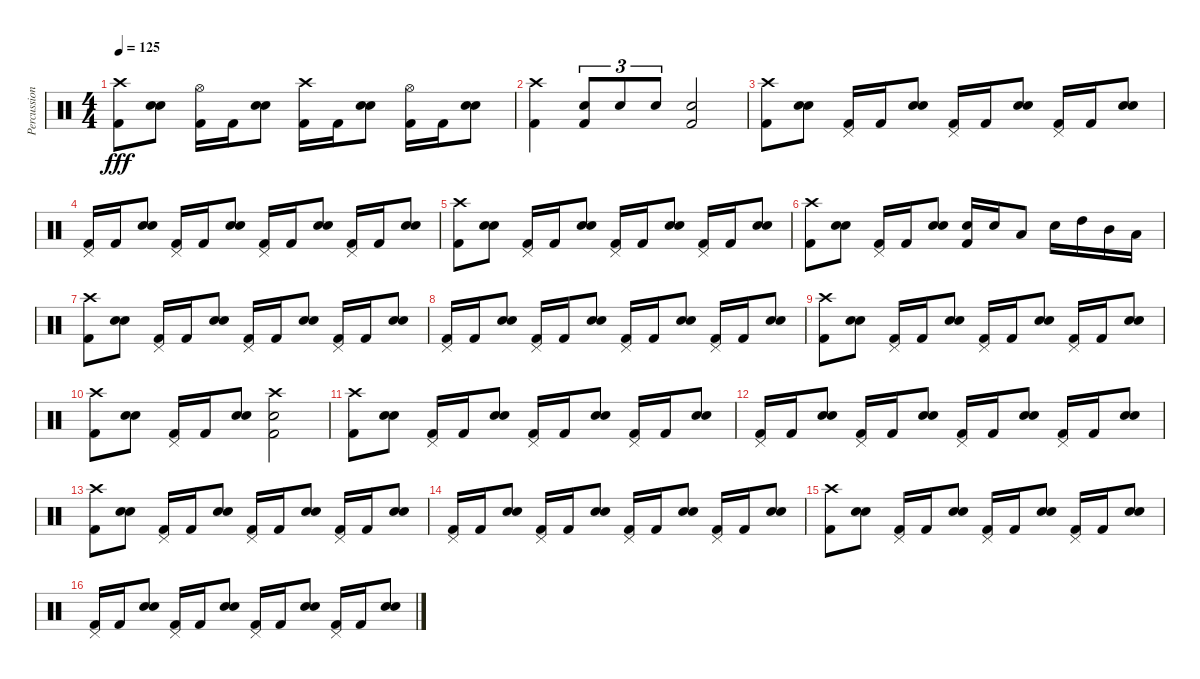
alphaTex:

\track ("Percussion" "Percussion") {instrument percussion}
\staff {score}
\articulation defaults
\ts (4 4)
\tempo 125
\clef neutral
\ks c
("Crash high (hit)" "Kick (hit) 2").8{dy fff} ("Snare (hit) 2" "Snare (hit) 2").8 ("Hi-Hat (open)" "Kick (hit) 2").16 "Kick (hit) 2".16 ("Snare (hit) 2" "Snare (hit) 2").8 ("Crash high (hit)" "Kick (hit) 2").16 "Kick (hit) 2".16 ("Snare (hit) 2" "Snare (hit) 2").8 ("Hi-Hat (open)" "Kick (hit) 2").16 "Kick (hit) 2".16 ("Snare (hit) 2" "Snare (hit) 2").8 |
("Crash high (hit)" "Kick (hit) 2").4 ("Snare (hit) 2" "Kick (hit) 2").8{tu (3 2)} "Snare (hit) 2".8{tu (3 2)} "Snare (hit) 2".8{tu (3 2)} ("Snare (hit) 2" "Kick (hit) 2").2 |
("Crash high (hit)" "Kick (hit) 2").8 ("Snare (hit) 2" "Snare (hit) 2").8 ("Pedal Hi-Hat (hit)" "Kick (hit) 2").16 "Kick (hit) 2".16 ("Snare (hit) 2" "Snare (hit) 2").8 ("Pedal Hi-Hat (hit)" "Kick (hit) 2").16 "Kick (hit) 2".16 ("Snare (hit) 2" "Snare (hit) 2").8 ("Pedal Hi-Hat (hit)" "Kick (hit) 2").16 "Kick (hit) 2".16 ("Snare (hit) 2" "Snare (hit) 2").8 |
("Pedal Hi-Hat (hit)" "Kick (hit) 2").16 "Kick (hit) 2".16 ("Snare (hit) 2" "Snare (hit) 2").8 ("Pedal Hi-Hat (hit)" "Kick (hit) 2").16 "Kick (hit) 2".16 ("Snare (hit) 2" "Snare (hit) 2").8 ("Pedal Hi-Hat (hit)" "Kick (hit) 2").16 "Kick (hit) 2".16 ("Snare (hit) 2" "Snare (hit) 2").8 ("Pedal Hi-Hat (hit)" "Kick (hit) 2").16 "Kick (hit) 2".16 ("Snare (hit) 2" "Snare (hit) 2").8 |
("Crash high (hit)" "Kick (hit) 2").8 ("Snare (hit) 2" "Snare (hit) 2").8 ("Pedal Hi-Hat (hit)" "Kick (hit) 2").16 "Kick (hit) 2".16 ("Snare (hit) 2" "Snare (hit) 2").8 ("Pedal Hi-Hat (hit)" "Kick (hit) 2").16 "Kick (hit) 2".16 ("Snare (hit) 2" "Snare (hit) 2").8 ("Pedal Hi-Hat (hit)" "Kick (hit) 2").16 "Kick (hit) 2".16 ("Snare (hit) 2" "Snare (hit) 2").8 |
("Crash high (hit)" "Kick (hit) 2").8 ("Snare (hit) 2" "Snare (hit) 2").8 ("Pedal Hi-Hat (hit)" "Kick (hit) 2").16 "Kick (hit) 2".16 ("Snare (hit) 2" "Snare (hit) 2").8 ("Snare (hit) 2" "Kick (hit) 2").16 "Snare (hit) 2".16 "Low Tom (hit)".8 "Snare (hit) 2".16 "High Tom (hit)".16 "Mid Tom (hit)".16 "Low Tom (hit)".16 |
("Crash high (hit)" "Kick (hit) 2").8 ("Snare (hit) 2" "Snare (hit) 2").8 ("Pedal Hi-Hat (hit)" "Kick (hit) 2").16 "Kick (hit) 2".16 ("Snare (hit) 2" "Snare (hit) 2").8 ("Pedal Hi-Hat (hit)" "Kick (hit) 2").16 "Kick (hit) 2".16 ("Snare (hit) 2" "Snare (hit) 2").8 ("Pedal Hi-Hat (hit)" "Kick (hit) 2").16 "Kick (hit) 2".16 ("Snare (hit) 2" "Snare (hit) 2").8 |
("Pedal Hi-Hat (hit)" "Kick (hit) 2").16 "Kick (hit) 2".16 ("Snare (hit) 2" "Snare (hit) 2").8 ("Pedal Hi-Hat (hit)" "Kick (hit) 2").16 "Kick (hit) 2".16 ("Snare (hit) 2" "Snare (hit) 2").8 ("Pedal Hi-Hat (hit)" "Kick (hit) 2").16 "Kick (hit) 2".16 ("Snare (hit) 2" "Snare (hit) 2").8 ("Pedal Hi-Hat (hit)" "Kick (hit) 2").16 "Kick (hit) 2".16 ("Snare (hit) 2" "Snare (hit) 2").8 |
("Crash high (hit)" "Kick (hit) 2").8 ("Snare (hit) 2" "Snare (hit) 2").8 ("Pedal Hi-Hat (hit)" "Kick (hit) 2").16 "Kick (hit) 2".16 ("Snare (hit) 2" "Snare (hit) 2").8 ("Pedal Hi-Hat (hit)" "Kick (hit) 2").16 "Kick (hit) 2".16 ("Snare (hit) 2" "Snare (hit) 2").8 ("Pedal Hi-Hat (hit)" "Kick (hit) 2").16 "Kick (hit) 2".16 ("Snare (hit) 2" "Snare (hit) 2").8 |
("Crash high (hit)" "Kick (hit) 2").8 ("Snare (hit) 2" "Snare (hit) 2").8 ("Pedal Hi-Hat (hit)" "Kick (hit) 2").16 "Kick (hit) 2".16 ("Snare (hit) 2" "Snare (hit) 2").8 ("Crash high (hit)" "Snare (hit) 2" "Kick (hit) 2").2 |
("Crash high (hit)" "Kick (hit) 2").8 ("Snare (hit) 2" "Snare (hit) 2").8 ("Pedal Hi-Hat (hit)" "Kick (hit) 2").16 "Kick (hit) 2".16 ("Snare (hit) 2" "Snare (hit) 2").8 ("Pedal Hi-Hat (hit)" "Kick (hit) 2").16 "Kick (hit) 2".16 ("Snare (hit) 2" "Snare (hit) 2").8 ("Pedal Hi-Hat (hit)" "Kick (hit) 2").16 "Kick (hit) 2".16 ("Snare (hit) 2" "Snare (hit) 2").8 |
("Pedal Hi-Hat (hit)" "Kick (hit) 2").16 "Kick (hit) 2".16 ("Snare (hit) 2" "Snare (hit) 2").8 ("Pedal Hi-Hat (hit)" "Kick (hit) 2").16 "Kick (hit) 2".16 ("Snare (hit) 2" "Snare (hit) 2").8 ("Pedal Hi-Hat (hit)" "Kick (hit) 2").16 "Kick (hit) 2".16 ("Snare (hit) 2" "Snare (hit) 2").8 ("Pedal Hi-Hat (hit)" "Kick (hit) 2").16 "Kick (hit) 2".16 ("Snare (hit) 2" "Snare (hit) 2").8 |
("Crash high (hit)" "Kick (hit) 2").8 ("Snare (hit) 2" "Snare (hit) 2").8 ("Pedal Hi-Hat (hit)" "Kick (hit) 2").16 "Kick (hit) 2".16 ("Snare (hit) 2" "Snare (hit) 2").8 ("Pedal Hi-Hat (hit)" "Kick (hit) 2").16 "Kick (hit) 2".16 ("Snare (hit) 2" "Snare (hit) 2").8 ("Pedal Hi-Hat (hit)" "Kick (hit) 2").16 "Kick (hit) 2".16 ("Snare (hit) 2" "Snare (hit) 2").8 |
("Pedal Hi-Hat (hit)" "Kick (hit) 2").16 "Kick (hit) 2".16 ("Snare (hit) 2" "Snare (hit) 2").8 ("Pedal Hi-Hat (hit)" "Kick (hit) 2").16 "Kick (hit) 2".16 ("Snare (hit) 2" "Snare (hit) 2").8 ("Pedal Hi-Hat (hit)" "Kick (hit) 2").16 "Kick (hit) 2".16 ("Snare (hit) 2" "Snare (hit) 2").8 ("Pedal Hi-Hat (hit)" "Kick (hit) 2").16 "Kick (hit) 2".16 ("Snare (hit) 2" "Snare (hit) 2").8 |
("Crash high (hit)" "Kick (hit) 2").8 ("Snare (hit) 2" "Snare (hit) 2").8 ("Pedal Hi-Hat (hit)" "Kick (hit) 2").16 "Kick (hit) 2".16 ("Snare (hit) 2" "Snare (hit) 2").8 ("Pedal Hi-Hat (hit)" "Kick (hit) 2").16 "Kick (hit) 2".16 ("Snare (hit) 2" "Snare (hit) 2").8 ("Pedal Hi-Hat (hit)" "Kick (hit) 2").16 "Kick (hit) 2".16 ("Snare (hit) 2" "Snare (hit) 2").8 |
("Pedal Hi-Hat (hit)" "Kick (hit) 2").16 "Kick (hit) 2".16 ("Snare (hit) 2" "Snare (hit) 2").8 ("Pedal Hi-Hat (hit)" "Kick (hit) 2").16 "Kick (hit) 2".16 ("Snare (hit) 2" "Snare (hit) 2").8 ("Pedal Hi-Hat (hit)" "Kick (hit) 2").16 "Kick (hit) 2".16 ("Snare (hit) 2" "Snare (hit) 2").8 ("Pedal Hi-Hat (hit)" "Kick (hit) 2").16 "Kick (hit) 2".16 ("Snare (hit) 2" "Snare (hit) 2").8
